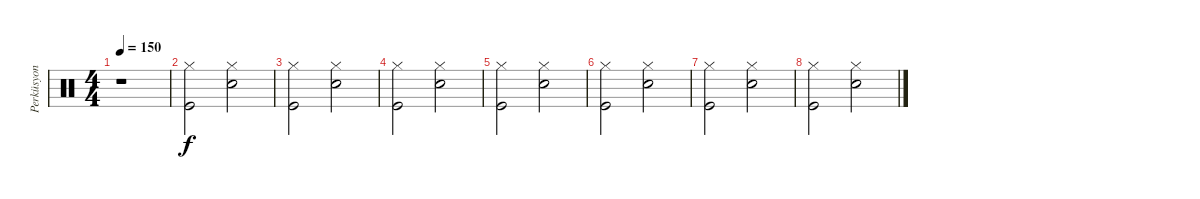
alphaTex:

\track ("Perküsyon" "Perküsyon") {instrument percussion}
\staff {score}
\articulation defaults
\ts (4 4)
\tempo 150
\clef neutral
\ks c
r.1{dy f} |
("Kick (hit)" "Hi-Hat (closed)").2 ("Snare (hit) 2" "Hi-Hat (closed)").2 |
("Kick (hit)" "Hi-Hat (closed)").2 ("Snare (hit) 2" "Hi-Hat (closed)").2 |
("Kick (hit)" "Hi-Hat (closed)").2 ("Snare (hit) 2" "Hi-Hat (closed)").2 |
("Kick (hit)" "Hi-Hat (closed)").2 ("Snare (hit) 2" "Hi-Hat (closed)").2 |
("Kick (hit)" "Hi-Hat (closed)").2 ("Snare (hit) 2" "Hi-Hat (closed)").2 |
("Kick (hit)" "Hi-Hat (closed)").2 ("Snare (hit) 2" "Hi-Hat (closed)").2 |
("Kick (hit)" "Hi-Hat (closed)").2 ("Snare (hit) 2" "Hi-Hat (closed)").2
